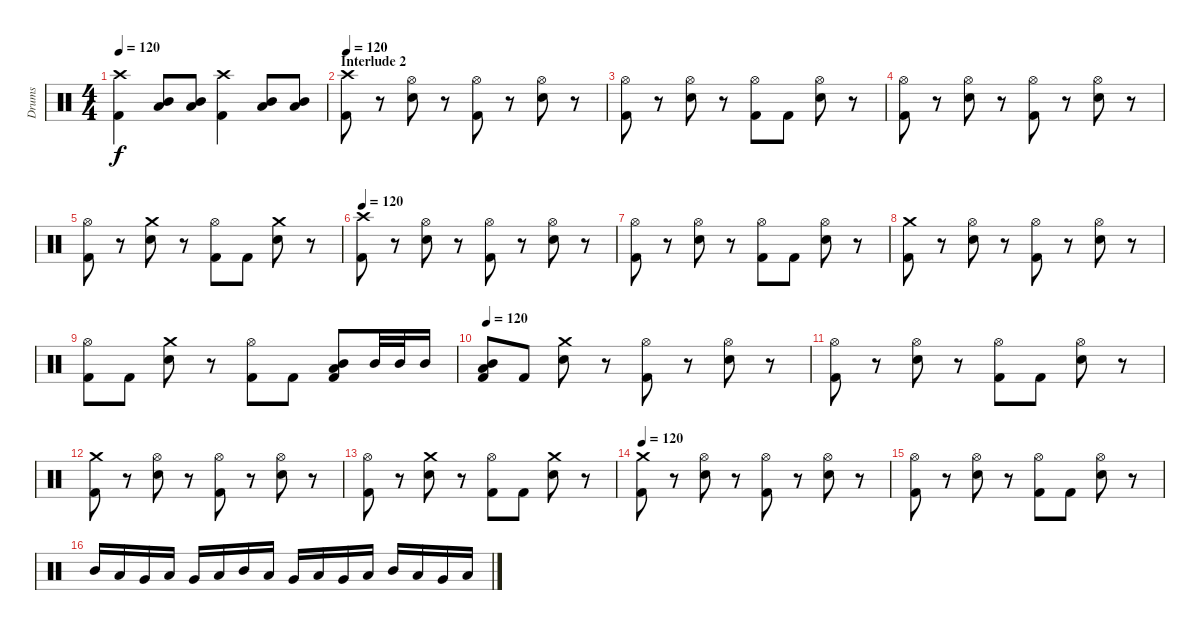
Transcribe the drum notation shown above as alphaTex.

\track ("Drums" "Drums") {instrument percussion}
\staff {score}
\articulation defaults
\ts (4 4)
\tempo 120
\clef neutral
\ks c
("Crash high (hit)" "Kick (hit) 2").4{dy f} ("Mid Tom (hit)" "Low Tom (hit)").8 ("Mid Tom (hit)" "Low Tom (hit)").8 ("Crash high (hit)" "Kick (hit) 2").4 ("Mid Tom (hit)" "Low Tom (hit)").8 ("Mid Tom (hit)" "Low Tom (hit)").8 |
\section ("" "Interlude 2")
\tempo 120
("Crash high (hit)" "Kick (hit) 2").8 r.8 ("Hi-Hat (open)" "Electric Snare (hit)").8 r.8 ("Hi-Hat (open)" "Kick (hit) 2").8 r.8 ("Hi-Hat (open)" "Electric Snare (hit)").8 r.8 |
("Hi-Hat (open)" "Kick (hit) 2").8 r.8 ("Hi-Hat (open)" "Electric Snare (hit)").8 r.8 ("Hi-Hat (open)" "Kick (hit) 2").8 "Kick (hit) 2".8 ("Hi-Hat (open)" "Electric Snare (hit)").8 r.8 |
("Hi-Hat (open)" "Kick (hit) 2").8 r.8 ("Hi-Hat (open)" "Electric Snare (hit)").8 r.8 ("Hi-Hat (open)" "Kick (hit) 2").8 r.8 ("Hi-Hat (open)" "Electric Snare (hit)").8 r.8 |
("Hi-Hat (open)" "Kick (hit) 2").8 r.8 ("Crash medium (hit)" "Electric Snare (hit)").8 r.8 ("Hi-Hat (open)" "Kick (hit) 2").8 "Kick (hit) 2".8 ("Crash medium (hit)" "Electric Snare (hit)").8 r.8 |
\tempo 120
("Crash high (hit)" "Kick (hit) 2").8 r.8 ("Hi-Hat (open)" "Electric Snare (hit)").8 r.8 ("Hi-Hat (open)" "Kick (hit) 2").8 r.8 ("Hi-Hat (open)" "Electric Snare (hit)").8 r.8 |
("Hi-Hat (open)" "Kick (hit) 2").8 r.8 ("Hi-Hat (open)" "Electric Snare (hit)").8 r.8 ("Hi-Hat (open)" "Kick (hit) 2").8 "Kick (hit) 2".8 ("Hi-Hat (open)" "Electric Snare (hit)").8 r.8 |
("Crash medium (hit)" "Kick (hit) 2").8 r.8 ("Hi-Hat (open)" "Electric Snare (hit)").8 r.8 ("Hi-Hat (open)" "Kick (hit) 2").8 r.8 ("Hi-Hat (open)" "Electric Snare (hit)").8 r.8 |
("Hi-Hat (open)" "Kick (hit) 2").8 "Kick (hit) 2".8 ("Crash medium (hit)" "Electric Snare (hit)").8 r.8 ("Hi-Hat (open)" "Kick (hit) 2").8 "Kick (hit) 2".8 ("Mid Tom (hit)" "Low Tom (hit)" "Kick (hit) 2").8 "Mid Tom (hit)".32 "Mid Tom (hit)".32 "Mid Tom (hit)".16 |
\tempo 120
("Mid Tom (hit)" "Low Tom (hit)" "Kick (hit) 2").8 "Kick (hit) 2".8 ("Crash medium (hit)" "Electric Snare (hit)").8 r.8 ("Hi-Hat (open)" "Kick (hit) 2").8 r.8 ("Hi-Hat (open)" "Electric Snare (hit)").8 r.8 |
("Hi-Hat (open)" "Kick (hit) 2").8 r.8 ("Hi-Hat (open)" "Electric Snare (hit)").8 r.8 ("Hi-Hat (open)" "Kick (hit) 2").8 "Kick (hit) 2".8 ("Hi-Hat (open)" "Electric Snare (hit)").8 r.8 |
("Crash medium (hit)" "Kick (hit) 2").8 r.8 ("Hi-Hat (open)" "Electric Snare (hit)").8 r.8 ("Hi-Hat (open)" "Kick (hit) 2").8 r.8 ("Hi-Hat (open)" "Electric Snare (hit)").8 r.8 |
("Hi-Hat (open)" "Kick (hit) 2").8 r.8 ("Crash medium (hit)" "Electric Snare (hit)").8 r.8 ("Hi-Hat (open)" "Kick (hit) 2").8 "Kick (hit) 2".8 ("Crash medium (hit)" "Electric Snare (hit)").8 r.8 |
\tempo 120
("Crash medium (hit)" "Kick (hit) 2").8 r.8 ("Hi-Hat (open)" "Electric Snare (hit)").8 r.8 ("Hi-Hat (open)" "Kick (hit) 2").8 r.8 ("Hi-Hat (open)" "Electric Snare (hit)").8 r.8 |
("Hi-Hat (open)" "Kick (hit) 2").8 r.8 ("Hi-Hat (open)" "Electric Snare (hit)").8 r.8 ("Hi-Hat (open)" "Kick (hit) 2").8 "Kick (hit) 2".8 ("Hi-Hat (open)" "Electric Snare (hit)").8 r.8 |
"Mid Tom (hit)".16 "Low Tom (hit)".16 "Very Low Tom (hit)".16 "Low Tom (hit)".16 "Very Low Tom (hit)".16 "Low Tom (hit)".16 "Mid Tom (hit)".16 "Low Tom (hit)".16 "Very Low Tom (hit)".16 "Low Tom (hit)".16 "Very Low Tom (hit)".16 "Low Tom (hit)".16 "Mid Tom (hit)".16 "Low Tom (hit)".16 "Very Low Tom (hit)".16 "Low Tom (hit)".16
